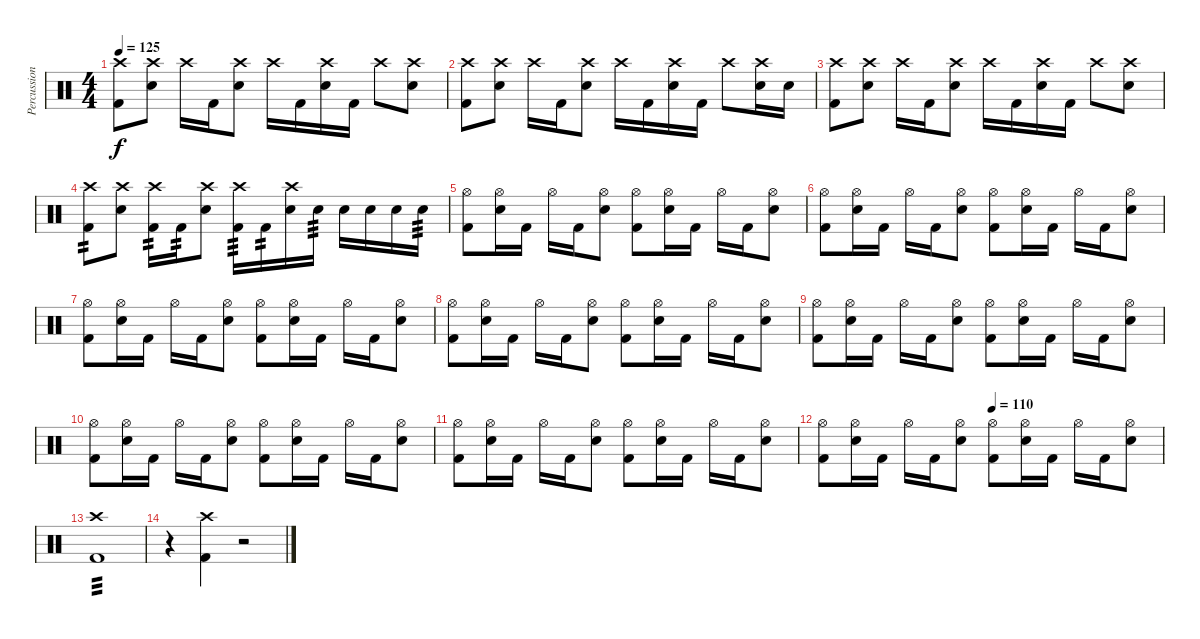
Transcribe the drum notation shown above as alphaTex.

\track ("Percussion" "Percussion") {instrument percussion}
\staff {score}
\articulation defaults
\ts (4 4)
\tempo 125
\clef neutral
\ks c
("Crash high (hit)" "Kick (hit) 2").8{dy f} ("Crash high (hit)" "Electric Snare (hit)").8 "Crash high (hit)".16 "Kick (hit) 2".16 ("Crash high (hit)" "Electric Snare (hit)").8 "Crash high (hit)".16 "Kick (hit) 2".16 ("Crash high (hit)" "Electric Snare (hit)").16 "Kick (hit) 2".16 "Crash high (hit)".8 ("Crash high (hit)" "Electric Snare (hit)").8 |
("Crash high (hit)" "Kick (hit) 2").8 ("Crash high (hit)" "Electric Snare (hit)").8 "Crash high (hit)".16 "Kick (hit) 2".16 ("Crash high (hit)" "Electric Snare (hit)").8 "Crash high (hit)".16 "Kick (hit) 2".16 ("Crash high (hit)" "Electric Snare (hit)").16 "Kick (hit) 2".16 "Crash high (hit)".8 ("Crash high (hit)" "Electric Snare (hit)").16 "Electric Snare (hit)".16 |
("Crash high (hit)" "Kick (hit) 2").8 ("Crash high (hit)" "Electric Snare (hit)").8 "Crash high (hit)".16 "Kick (hit) 2".16 ("Crash high (hit)" "Electric Snare (hit)").8 "Crash high (hit)".16 "Kick (hit) 2".16 ("Crash high (hit)" "Electric Snare (hit)").16 "Kick (hit) 2".16 "Crash high (hit)".8 ("Crash high (hit)" "Electric Snare (hit)").8 |
("Crash high (hit)" "Kick (hit) 2").8{tp 2} ("Crash high (hit)" "Electric Snare (hit)").8 ("Crash high (hit)" "Kick (hit) 2").16{tp 2} "Kick (hit) 2".16{tp 2} ("Crash high (hit)" "Electric Snare (hit)").8 ("Crash high (hit)" "Kick (hit) 2").16{tp 3} "Kick (hit) 2".16{tp 2} ("Crash high (hit)" "Electric Snare (hit)").16 "Electric Snare (hit)".16{tp 3} "Electric Snare (hit)".16 "Electric Snare (hit)".16 "Electric Snare (hit)".16 "Electric Snare (hit)".16{tp 3} |
("Hi-Hat (open)" "Kick (hit) 2").8 ("Hi-Hat (open)" "Electric Snare (hit)").16 "Kick (hit) 2".16 "Hi-Hat (open)".16 "Kick (hit) 2".16 ("Electric Snare (hit)" "Hi-Hat (open)").8 ("Hi-Hat (open)" "Kick (hit) 2").8 ("Hi-Hat (open)" "Electric Snare (hit)").16 "Kick (hit) 2".16 "Hi-Hat (open)".16 "Kick (hit) 2".16 ("Electric Snare (hit)" "Hi-Hat (open)").8 |
("Hi-Hat (open)" "Kick (hit) 2").8 ("Hi-Hat (open)" "Electric Snare (hit)").16 "Kick (hit) 2".16 "Hi-Hat (open)".16 "Kick (hit) 2".16 ("Electric Snare (hit)" "Hi-Hat (open)").8 ("Hi-Hat (open)" "Kick (hit) 2").8 ("Hi-Hat (open)" "Electric Snare (hit)").16 "Kick (hit) 2".16 "Hi-Hat (open)".16 "Kick (hit) 2".16 ("Electric Snare (hit)" "Hi-Hat (open)").8 |
("Hi-Hat (open)" "Kick (hit) 2").8 ("Hi-Hat (open)" "Electric Snare (hit)").16 "Kick (hit) 2".16 "Hi-Hat (open)".16 "Kick (hit) 2".16 ("Electric Snare (hit)" "Hi-Hat (open)").8 ("Hi-Hat (open)" "Kick (hit) 2").8 ("Hi-Hat (open)" "Electric Snare (hit)").16 "Kick (hit) 2".16 "Hi-Hat (open)".16 "Kick (hit) 2".16 ("Electric Snare (hit)" "Hi-Hat (open)").8 |
("Hi-Hat (open)" "Kick (hit) 2").8 ("Hi-Hat (open)" "Electric Snare (hit)").16 "Kick (hit) 2".16 "Hi-Hat (open)".16 "Kick (hit) 2".16 ("Electric Snare (hit)" "Hi-Hat (open)").8 ("Hi-Hat (open)" "Kick (hit) 2").8 ("Hi-Hat (open)" "Electric Snare (hit)").16 "Kick (hit) 2".16 "Hi-Hat (open)".16 "Kick (hit) 2".16 ("Electric Snare (hit)" "Hi-Hat (open)").8 |
("Hi-Hat (open)" "Kick (hit) 2").8 ("Hi-Hat (open)" "Electric Snare (hit)").16 "Kick (hit) 2".16 "Hi-Hat (open)".16 "Kick (hit) 2".16 ("Electric Snare (hit)" "Hi-Hat (open)").8 ("Hi-Hat (open)" "Kick (hit) 2").8 ("Hi-Hat (open)" "Electric Snare (hit)").16 "Kick (hit) 2".16 "Hi-Hat (open)".16 "Kick (hit) 2".16 ("Electric Snare (hit)" "Hi-Hat (open)").8 |
("Hi-Hat (open)" "Kick (hit) 2").8 ("Hi-Hat (open)" "Electric Snare (hit)").16 "Kick (hit) 2".16 "Hi-Hat (open)".16 "Kick (hit) 2".16 ("Electric Snare (hit)" "Hi-Hat (open)").8 ("Hi-Hat (open)" "Kick (hit) 2").8 ("Hi-Hat (open)" "Electric Snare (hit)").16 "Kick (hit) 2".16 "Hi-Hat (open)".16 "Kick (hit) 2".16 ("Electric Snare (hit)" "Hi-Hat (open)").8 |
("Hi-Hat (open)" "Kick (hit) 2").8 ("Hi-Hat (open)" "Electric Snare (hit)").16 "Kick (hit) 2".16 "Hi-Hat (open)".16 "Kick (hit) 2".16 ("Electric Snare (hit)" "Hi-Hat (open)").8 ("Hi-Hat (open)" "Kick (hit) 2").8 ("Hi-Hat (open)" "Electric Snare (hit)").16 "Kick (hit) 2".16 "Hi-Hat (open)".16 "Kick (hit) 2".16 ("Electric Snare (hit)" "Hi-Hat (open)").8 |
\tempo (110 0.5)
("Hi-Hat (open)" "Kick (hit) 2").8 ("Hi-Hat (open)" "Electric Snare (hit)").16 "Kick (hit) 2".16 "Hi-Hat (open)".16 "Kick (hit) 2".16 ("Electric Snare (hit)" "Hi-Hat (open)").8 ("Hi-Hat (open)" "Kick (hit) 2").8 ("Hi-Hat (open)" "Electric Snare (hit)").16 "Kick (hit) 2".16 "Hi-Hat (open)".16 "Kick (hit) 2".16 ("Electric Snare (hit)" "Hi-Hat (open)").8 |
("Crash high (hit)" "Kick (hit) 2").1{tp 3} |
r.4 ("Crash high (hit)" "Kick (hit) 2").4 r.2
